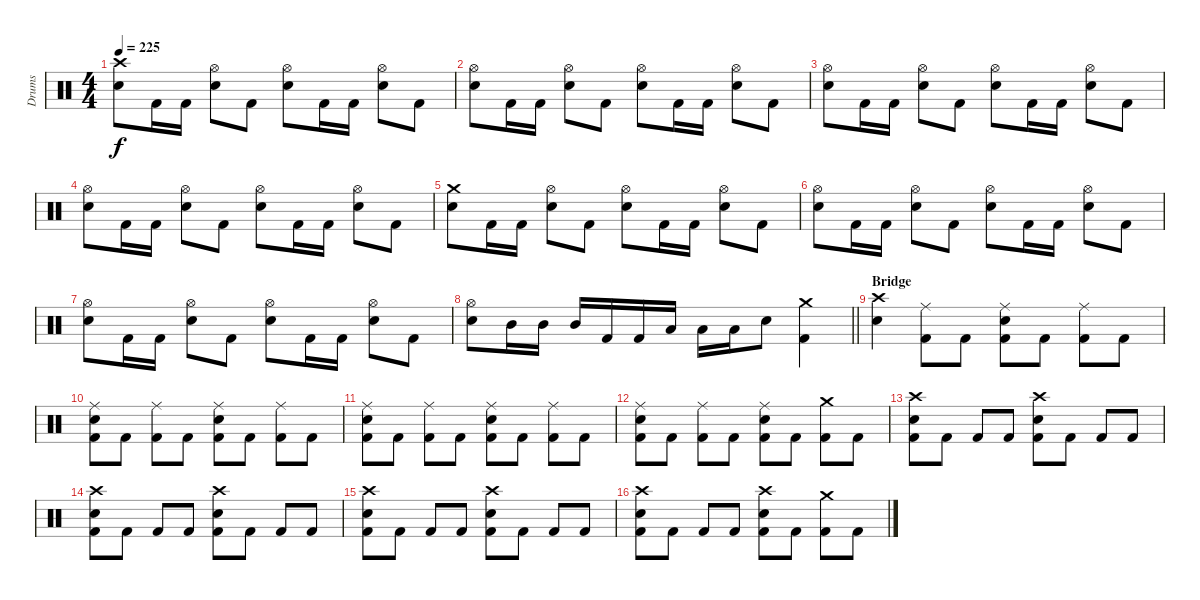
\track ("Drums" "Drums") {instrument percussion}
\staff {score}
\articulation defaults
\ts (4 4)
\tempo 225
\clef neutral
\ks c
("Crash high (hit)" "Electric Snare (hit)").8{dy f} "Kick (hit) 2".16 "Kick (hit) 2".16 ("Hi-Hat (open)" "Electric Snare (hit)").8 "Kick (hit) 2".8 ("Hi-Hat (open)" "Electric Snare (hit)").8 "Kick (hit) 2".16 "Kick (hit) 2".16 ("Hi-Hat (open)" "Electric Snare (hit)").8 "Kick (hit) 2".8 |
("Hi-Hat (open)" "Electric Snare (hit)").8 "Kick (hit) 2".16 "Kick (hit) 2".16 ("Hi-Hat (open)" "Electric Snare (hit)").8 "Kick (hit) 2".8 ("Hi-Hat (open)" "Electric Snare (hit)").8 "Kick (hit) 2".16 "Kick (hit) 2".16 ("Hi-Hat (open)" "Electric Snare (hit)").8 "Kick (hit) 2".8 |
("Hi-Hat (open)" "Electric Snare (hit)").8 "Kick (hit) 2".16 "Kick (hit) 2".16 ("Hi-Hat (open)" "Electric Snare (hit)").8 "Kick (hit) 2".8 ("Hi-Hat (open)" "Electric Snare (hit)").8 "Kick (hit) 2".16 "Kick (hit) 2".16 ("Hi-Hat (open)" "Electric Snare (hit)").8 "Kick (hit) 2".8 |
("Hi-Hat (open)" "Electric Snare (hit)").8 "Kick (hit) 2".16 "Kick (hit) 2".16 ("Hi-Hat (open)" "Electric Snare (hit)").8 "Kick (hit) 2".8 ("Hi-Hat (open)" "Electric Snare (hit)").8 "Kick (hit) 2".16 "Kick (hit) 2".16 ("Hi-Hat (open)" "Electric Snare (hit)").8 "Kick (hit) 2".8 |
("Crash medium (hit)" "Electric Snare (hit)").8 "Kick (hit) 2".16 "Kick (hit) 2".16 ("Hi-Hat (open)" "Electric Snare (hit)").8 "Kick (hit) 2".8 ("Hi-Hat (open)" "Electric Snare (hit)").8 "Kick (hit) 2".16 "Kick (hit) 2".16 ("Hi-Hat (open)" "Electric Snare (hit)").8 "Kick (hit) 2".8 |
("Hi-Hat (open)" "Electric Snare (hit)").8 "Kick (hit) 2".16 "Kick (hit) 2".16 ("Hi-Hat (open)" "Electric Snare (hit)").8 "Kick (hit) 2".8 ("Hi-Hat (open)" "Electric Snare (hit)").8 "Kick (hit) 2".16 "Kick (hit) 2".16 ("Hi-Hat (open)" "Electric Snare (hit)").8 "Kick (hit) 2".8 |
("Hi-Hat (open)" "Electric Snare (hit)").8 "Kick (hit) 2".16 "Kick (hit) 2".16 ("Hi-Hat (open)" "Electric Snare (hit)").8 "Kick (hit) 2".8 ("Hi-Hat (open)" "Electric Snare (hit)").8 "Kick (hit) 2".16 "Kick (hit) 2".16 ("Hi-Hat (open)" "Electric Snare (hit)").8 "Kick (hit) 2".8 |
\barLineRight lightlight
("Hi-Hat (open)" "Electric Snare (hit)").8 "Mid Tom (hit)".16 "Mid Tom (hit)".16 "Mid Tom (hit)".16 "Kick (hit) 2".16 "Kick (hit) 2".16 "Low Tom (hit)".16 "Low Tom (hit)".16 "Low Tom (hit)".16 "Electric Snare (hit)".8 ("Crash medium (hit)" "Kick (hit) 2").4 |
\section ("" "Bridge")
("Crash high (hit)" "Electric Snare (hit)").4 ("Ride (middle)" "Kick (hit) 2").8 "Kick (hit) 2".8 ("Ride (middle)" "Electric Snare (hit)" "Kick (hit) 2").8 "Kick (hit) 2".8 ("Ride (middle)" "Kick (hit) 2").8 "Kick (hit) 2".8 |
("Ride (middle)" "Electric Snare (hit)" "Kick (hit) 2").8 "Kick (hit) 2".8 ("Ride (middle)" "Kick (hit) 2").8 "Kick (hit) 2".8 ("Ride (middle)" "Electric Snare (hit)" "Kick (hit) 2").8 "Kick (hit) 2".8 ("Ride (middle)" "Kick (hit) 2").8 "Kick (hit) 2".8 |
("Ride (middle)" "Electric Snare (hit)" "Kick (hit) 2").8 "Kick (hit) 2".8 ("Ride (middle)" "Kick (hit) 2").8 "Kick (hit) 2".8 ("Ride (middle)" "Electric Snare (hit)" "Kick (hit) 2").8 "Kick (hit) 2".8 ("Ride (middle)" "Kick (hit) 2").8 "Kick (hit) 2".8 |
("Ride (middle)" "Electric Snare (hit)" "Kick (hit) 2").8 "Kick (hit) 2".8 ("Ride (middle)" "Kick (hit) 2").8 "Kick (hit) 2".8 ("Ride (middle)" "Electric Snare (hit)" "Kick (hit) 2").8 "Kick (hit) 2".8 ("Crash medium (hit)" "Kick (hit) 2").8 "Kick (hit) 2".8 |
("Crash high (hit)" "Electric Snare (hit)" "Kick (hit) 2").8 "Kick (hit) 2".8 "Kick (hit) 2".8 "Kick (hit) 2".8 ("Crash high (hit)" "Electric Snare (hit)" "Kick (hit) 2").8 "Kick (hit) 2".8 "Kick (hit) 2".8 "Kick (hit) 2".8 |
("Crash high (hit)" "Electric Snare (hit)" "Kick (hit) 2").8 "Kick (hit) 2".8 "Kick (hit) 2".8 "Kick (hit) 2".8 ("Crash high (hit)" "Electric Snare (hit)" "Kick (hit) 2").8 "Kick (hit) 2".8 "Kick (hit) 2".8 "Kick (hit) 2".8 |
("Crash high (hit)" "Electric Snare (hit)" "Kick (hit) 2").8 "Kick (hit) 2".8 "Kick (hit) 2".8 "Kick (hit) 2".8 ("Crash high (hit)" "Electric Snare (hit)" "Kick (hit) 2").8 "Kick (hit) 2".8 "Kick (hit) 2".8 "Kick (hit) 2".8 |
("Crash high (hit)" "Electric Snare (hit)" "Kick (hit) 2").8 "Kick (hit) 2".8 "Kick (hit) 2".8 "Kick (hit) 2".8 ("Crash high (hit)" "Electric Snare (hit)" "Kick (hit) 2").8 "Kick (hit) 2".8 ("Crash medium (hit)" "Kick (hit) 2").8 "Kick (hit) 2".8
